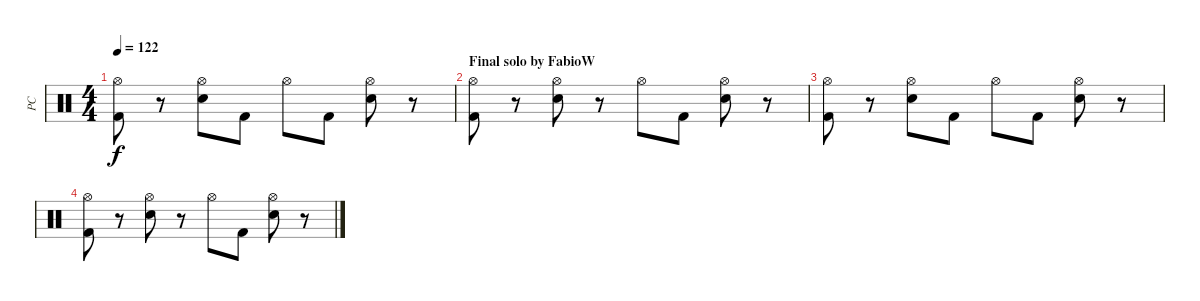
\track ("PC" "PC") {instrument percussion}
\staff {score}
\articulation defaults
\ts (4 4)
\tempo 122
\clef neutral
\ks c
("Hi-Hat (open)" "Kick (hit) 2").8{dy f} r.8 ("Hi-Hat (open)" "Electric Snare (hit)").8 "Kick (hit) 2".8 "Hi-Hat (open)".8 "Kick (hit) 2".8 ("Hi-Hat (open)" "Electric Snare (hit)").8 r.8 |
\section ("" "Final solo by FabioW")
("Hi-Hat (open)" "Kick (hit) 2").8 r.8 ("Hi-Hat (open)" "Electric Snare (hit)").8 r.8 "Hi-Hat (open)".8 "Kick (hit) 2".8 ("Hi-Hat (open)" "Electric Snare (hit)").8 r.8 |
("Hi-Hat (open)" "Kick (hit) 2").8 r.8 ("Hi-Hat (open)" "Electric Snare (hit)").8 "Kick (hit) 2".8 "Hi-Hat (open)".8 "Kick (hit) 2".8 ("Hi-Hat (open)" "Electric Snare (hit)").8 r.8 |
("Hi-Hat (open)" "Kick (hit) 2").8 r.8 ("Hi-Hat (open)" "Electric Snare (hit)").8 r.8 "Hi-Hat (open)".8 "Kick (hit) 2".8 ("Hi-Hat (open)" "Electric Snare (hit)").8 r.8
